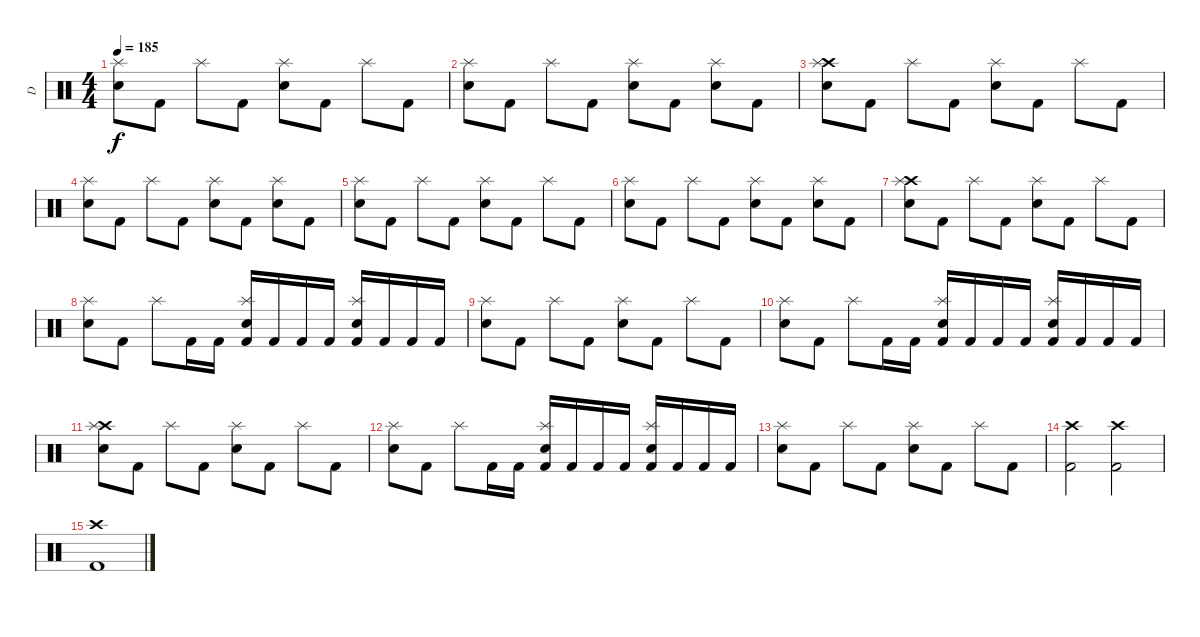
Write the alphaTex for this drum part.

\track ("D" "D") {instrument percussion}
\staff {score}
\articulation defaults
\ts (4 4)
\tempo 185
\clef neutral
\ks c
("Electric Snare (hit)" "Splash (hit)").8{dy f} "Kick (hit) 2".8 "Splash (hit)".8 "Kick (hit) 2".8 ("Electric Snare (hit)" "Splash (hit)").8 "Kick (hit) 2".8 "Splash (hit)".8 "Kick (hit) 2".8 |
("Electric Snare (hit)" "Splash (hit)").8 "Kick (hit) 2".8 "Splash (hit)".8 "Kick (hit) 2".8 ("Electric Snare (hit)" "Splash (hit)").8 "Kick (hit) 2".8 ("Electric Snare (hit)" "Splash (hit)").8 "Kick (hit) 2".8 |
("Crash high (hit)" "Electric Snare (hit)" "Splash (hit)").8 "Kick (hit) 2".8 "Splash (hit)".8 "Kick (hit) 2".8 ("Electric Snare (hit)" "Splash (hit)").8 "Kick (hit) 2".8 "Splash (hit)".8 "Kick (hit) 2".8 |
("Electric Snare (hit)" "Splash (hit)").8 "Kick (hit) 2".8 "Splash (hit)".8 "Kick (hit) 2".8 ("Electric Snare (hit)" "Splash (hit)").8 "Kick (hit) 2".8 ("Electric Snare (hit)" "Splash (hit)").8 "Kick (hit) 2".8 |
("Electric Snare (hit)" "Splash (hit)").8 "Kick (hit) 2".8 "Splash (hit)".8 "Kick (hit) 2".8 ("Electric Snare (hit)" "Splash (hit)").8 "Kick (hit) 2".8 "Splash (hit)".8 "Kick (hit) 2".8 |
("Electric Snare (hit)" "Splash (hit)").8 "Kick (hit) 2".8 "Splash (hit)".8 "Kick (hit) 2".8 ("Electric Snare (hit)" "Splash (hit)").8 "Kick (hit) 2".8 ("Electric Snare (hit)" "Splash (hit)").8 "Kick (hit) 2".8 |
("Crash high (hit)" "Electric Snare (hit)" "Splash (hit)").8 "Kick (hit) 2".8 "Splash (hit)".8 "Kick (hit) 2".8 ("Electric Snare (hit)" "Splash (hit)").8 "Kick (hit) 2".8 "Splash (hit)".8 "Kick (hit) 2".8 |
("Electric Snare (hit)" "Splash (hit)").8 "Kick (hit) 2".8 "Splash (hit)".8 "Kick (hit) 2".16 "Kick (hit) 2".16 ("Electric Snare (hit)" "Kick (hit) 2" "Splash (hit)").16 "Kick (hit) 2".16 "Kick (hit) 2".16 "Kick (hit) 2".16 ("Electric Snare (hit)" "Kick (hit) 2" "Splash (hit)").16 "Kick (hit) 2".16 "Kick (hit) 2".16 "Kick (hit) 2".16 |
("Electric Snare (hit)" "Splash (hit)").8 "Kick (hit) 2".8 "Splash (hit)".8 "Kick (hit) 2".8 ("Electric Snare (hit)" "Splash (hit)").8 "Kick (hit) 2".8 "Splash (hit)".8 "Kick (hit) 2".8 |
("Electric Snare (hit)" "Splash (hit)").8 "Kick (hit) 2".8 "Splash (hit)".8 "Kick (hit) 2".16 "Kick (hit) 2".16 ("Electric Snare (hit)" "Kick (hit) 2" "Splash (hit)").16 "Kick (hit) 2".16 "Kick (hit) 2".16 "Kick (hit) 2".16 ("Electric Snare (hit)" "Kick (hit) 2" "Splash (hit)").16 "Kick (hit) 2".16 "Kick (hit) 2".16 "Kick (hit) 2".16 |
("Crash high (hit)" "Electric Snare (hit)" "Splash (hit)").8 "Kick (hit) 2".8 "Splash (hit)".8 "Kick (hit) 2".8 ("Electric Snare (hit)" "Splash (hit)").8 "Kick (hit) 2".8 "Splash (hit)".8 "Kick (hit) 2".8 |
("Electric Snare (hit)" "Splash (hit)").8 "Kick (hit) 2".8 "Splash (hit)".8 "Kick (hit) 2".16 "Kick (hit) 2".16 ("Electric Snare (hit)" "Kick (hit) 2" "Splash (hit)").16 "Kick (hit) 2".16 "Kick (hit) 2".16 "Kick (hit) 2".16 ("Electric Snare (hit)" "Kick (hit) 2" "Splash (hit)").16 "Kick (hit) 2".16 "Kick (hit) 2".16 "Kick (hit) 2".16 |
("Electric Snare (hit)" "Splash (hit)").8 "Kick (hit) 2".8 "Splash (hit)".8 "Kick (hit) 2".8 ("Electric Snare (hit)" "Splash (hit)").8 "Kick (hit) 2".8 "Splash (hit)".8 "Kick (hit) 2".8 |
("Crash high (hit)" "Kick (hit) 2").2 ("Crash high (hit)" "Kick (hit) 2").2 |
("Crash high (hit)" "Kick (hit) 2").1
